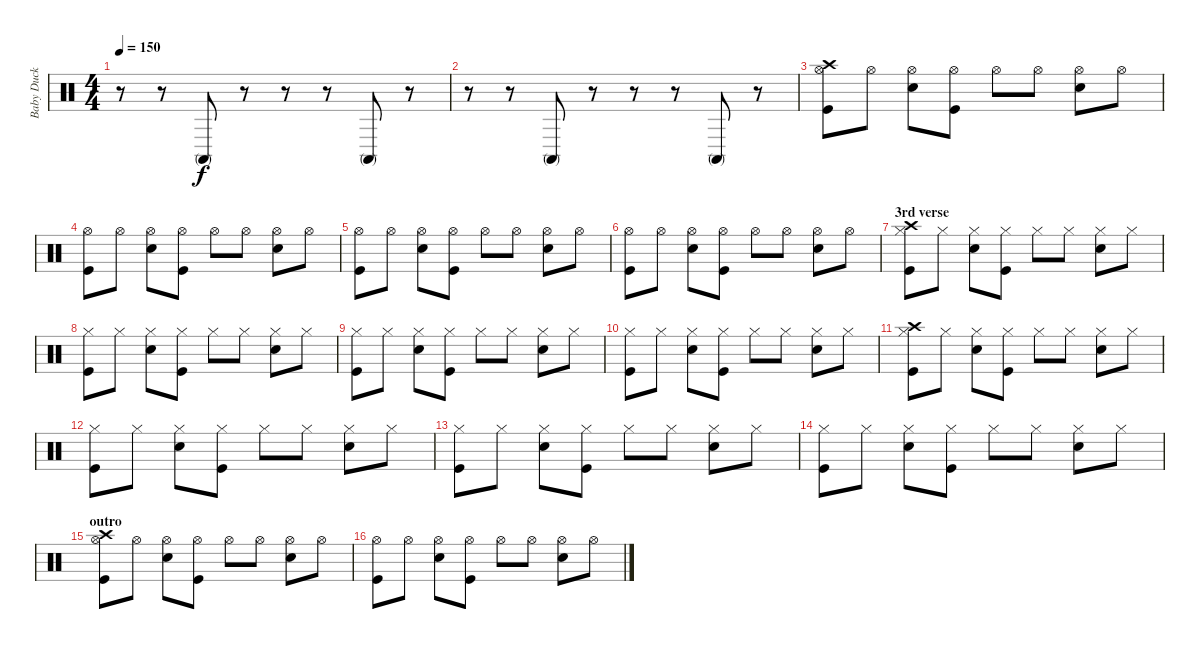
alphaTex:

\track ("Baby Duck" "Baby Duck") {instrument percussion}
\staff {score}
\articulation defaults
\ts (4 4)
\tempo 150
\clef neutral
\ks c
r.8{dy f} r.8 "Conga high (mute)".8 r.8 r.8 r.8 "Conga high (mute)".8 r.8 |
r.8 r.8 "Conga high (mute)".8 r.8 r.8 r.8 "Conga high (mute)".8 r.8 |
\section ("" "")
("Kick (hit)" "Hi-Hat (open)" "Crash high (hit)").8 "Hi-Hat (open)".8 ("Electric Snare (hit)" "Hi-Hat (open)").8 ("Kick (hit)" "Hi-Hat (open)").8 "Hi-Hat (open)".8 "Hi-Hat (open)".8 ("Electric Snare (hit)" "Hi-Hat (open)").8 "Hi-Hat (open)".8 |
("Kick (hit)" "Hi-Hat (open)").8 "Hi-Hat (open)".8 ("Electric Snare (hit)" "Hi-Hat (open)").8 ("Kick (hit)" "Hi-Hat (open)").8 "Hi-Hat (open)".8 "Hi-Hat (open)".8 ("Electric Snare (hit)" "Hi-Hat (open)").8 "Hi-Hat (open)".8 |
("Kick (hit)" "Hi-Hat (open)").8 "Hi-Hat (open)".8 ("Electric Snare (hit)" "Hi-Hat (open)").8 ("Kick (hit)" "Hi-Hat (open)").8 "Hi-Hat (open)".8 "Hi-Hat (open)".8 ("Electric Snare (hit)" "Hi-Hat (open)").8 "Hi-Hat (open)".8 |
("Kick (hit)" "Hi-Hat (open)").8 "Hi-Hat (open)".8 ("Electric Snare (hit)" "Hi-Hat (open)").8 ("Kick (hit)" "Hi-Hat (open)").8 "Hi-Hat (open)".8 "Hi-Hat (open)".8 ("Electric Snare (hit)" "Hi-Hat (open)").8 "Hi-Hat (open)".8 |
\section ("" "3rd verse")
("Kick (hit)" "Hi-Hat (closed)" "Crash high (hit)").8 "Hi-Hat (closed)".8 ("Electric Snare (hit)" "Hi-Hat (closed)").8 ("Kick (hit)" "Hi-Hat (closed)").8 "Hi-Hat (closed)".8 "Hi-Hat (closed)".8 ("Electric Snare (hit)" "Hi-Hat (closed)").8 "Hi-Hat (closed)".8 |
("Kick (hit)" "Hi-Hat (closed)").8 "Hi-Hat (closed)".8 ("Electric Snare (hit)" "Hi-Hat (closed)").8 ("Kick (hit)" "Hi-Hat (closed)").8 "Hi-Hat (closed)".8 "Hi-Hat (closed)".8 ("Electric Snare (hit)" "Hi-Hat (closed)").8 "Hi-Hat (closed)".8 |
("Kick (hit)" "Hi-Hat (closed)").8 "Hi-Hat (closed)".8 ("Electric Snare (hit)" "Hi-Hat (closed)").8 ("Kick (hit)" "Hi-Hat (closed)").8 "Hi-Hat (closed)".8 "Hi-Hat (closed)".8 ("Electric Snare (hit)" "Hi-Hat (closed)").8 "Hi-Hat (closed)".8 |
("Kick (hit)" "Hi-Hat (closed)").8 "Hi-Hat (closed)".8 ("Electric Snare (hit)" "Hi-Hat (closed)").8 ("Kick (hit)" "Hi-Hat (closed)").8 "Hi-Hat (closed)".8 "Hi-Hat (closed)".8 ("Electric Snare (hit)" "Hi-Hat (closed)").8 "Hi-Hat (closed)".8 |
\section ("" "")
("Kick (hit)" "Hi-Hat (closed)" "Crash high (hit)").8 "Hi-Hat (closed)".8 ("Electric Snare (hit)" "Hi-Hat (closed)").8 ("Kick (hit)" "Hi-Hat (closed)").8 "Hi-Hat (closed)".8 "Hi-Hat (closed)".8 ("Electric Snare (hit)" "Hi-Hat (closed)").8 "Hi-Hat (closed)".8 |
("Kick (hit)" "Hi-Hat (closed)").8 "Hi-Hat (closed)".8 ("Electric Snare (hit)" "Hi-Hat (closed)").8 ("Kick (hit)" "Hi-Hat (closed)").8 "Hi-Hat (closed)".8 "Hi-Hat (closed)".8 ("Electric Snare (hit)" "Hi-Hat (closed)").8 "Hi-Hat (closed)".8 |
("Kick (hit)" "Hi-Hat (closed)").8 "Hi-Hat (closed)".8 ("Electric Snare (hit)" "Hi-Hat (closed)").8 ("Kick (hit)" "Hi-Hat (closed)").8 "Hi-Hat (closed)".8 "Hi-Hat (closed)".8 ("Electric Snare (hit)" "Hi-Hat (closed)").8 "Hi-Hat (closed)".8 |
("Kick (hit)" "Hi-Hat (closed)").8 "Hi-Hat (closed)".8 ("Electric Snare (hit)" "Hi-Hat (closed)").8 ("Kick (hit)" "Hi-Hat (closed)").8 "Hi-Hat (closed)".8 "Hi-Hat (closed)".8 ("Electric Snare (hit)" "Hi-Hat (closed)").8 "Hi-Hat (closed)".8 |
\section ("" "outro")
("Kick (hit)" "Hi-Hat (open)" "Crash high (hit)").8 "Hi-Hat (open)".8 ("Electric Snare (hit)" "Hi-Hat (open)").8 ("Kick (hit)" "Hi-Hat (open)").8 "Hi-Hat (open)".8 "Hi-Hat (open)".8 ("Electric Snare (hit)" "Hi-Hat (open)").8 "Hi-Hat (open)".8 |
("Kick (hit)" "Hi-Hat (open)").8 "Hi-Hat (open)".8 ("Electric Snare (hit)" "Hi-Hat (open)").8 ("Kick (hit)" "Hi-Hat (open)").8 "Hi-Hat (open)".8 "Hi-Hat (open)".8 ("Electric Snare (hit)" "Hi-Hat (open)").8 "Hi-Hat (open)".8
